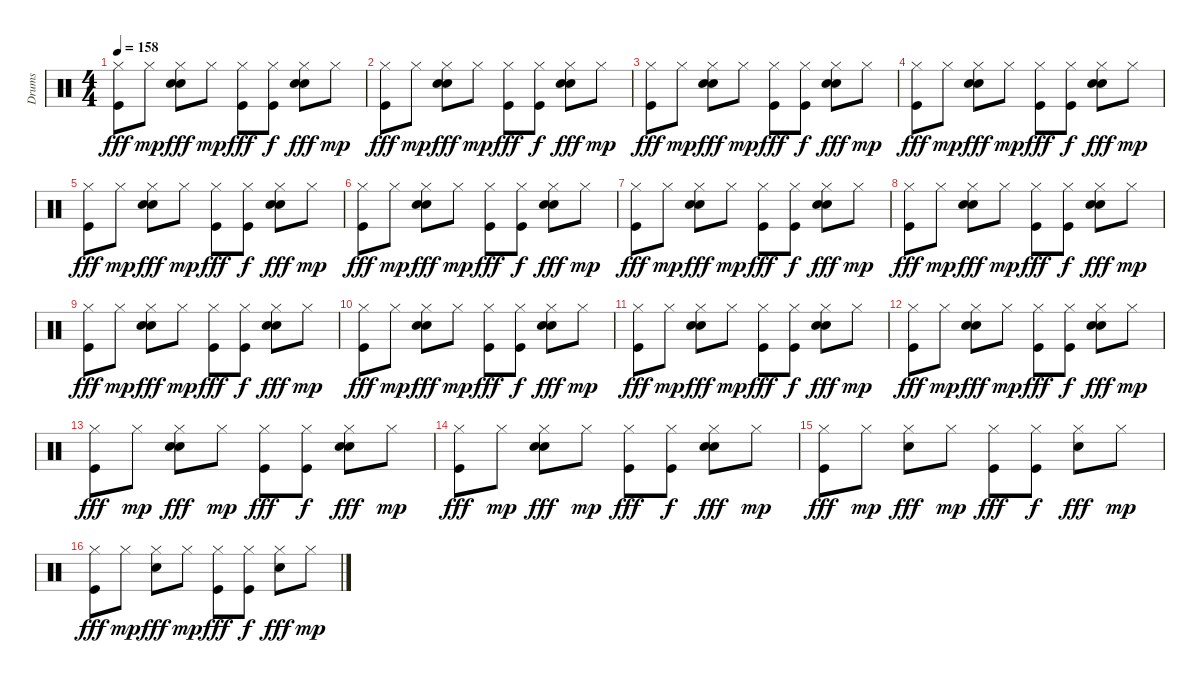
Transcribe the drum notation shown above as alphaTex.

\track ("Drums" "Drums") {instrument percussion}
\staff {score}
\articulation defaults
\ts (4 4)
\tempo 158
\clef neutral
\ks c
("Hi-Hat (closed)" "Kick (hit)").8{dy fff} "Hi-Hat (closed)".8{dy mp} ("Snare (hit) 2" "Hi-Hat (closed)" "Electric Snare (hit)").8{dy fff} "Hi-Hat (closed)".8{dy mp} ("Hi-Hat (closed)" "Kick (hit)").8{dy fff} ("Hi-Hat (closed)" "Kick (hit)").8{dy f} ("Snare (hit) 2" "Hi-Hat (closed)" "Electric Snare (hit)").8{dy fff} "Hi-Hat (closed)".8{dy mp} |
("Hi-Hat (closed)" "Kick (hit)").8{dy fff} "Hi-Hat (closed)".8{dy mp} ("Snare (hit) 2" "Hi-Hat (closed)" "Electric Snare (hit)").8{dy fff} "Hi-Hat (closed)".8{dy mp} ("Hi-Hat (closed)" "Kick (hit)").8{dy fff} ("Hi-Hat (closed)" "Kick (hit)").8{dy f} ("Snare (hit) 2" "Hi-Hat (closed)" "Electric Snare (hit)").8{dy fff} "Hi-Hat (closed)".8{dy mp} |
("Hi-Hat (closed)" "Kick (hit)").8{dy fff} "Hi-Hat (closed)".8{dy mp} ("Snare (hit) 2" "Hi-Hat (closed)" "Electric Snare (hit)").8{dy fff} "Hi-Hat (closed)".8{dy mp} ("Hi-Hat (closed)" "Kick (hit)").8{dy fff} ("Hi-Hat (closed)" "Kick (hit)").8{dy f} ("Snare (hit) 2" "Hi-Hat (closed)" "Electric Snare (hit)").8{dy fff} "Hi-Hat (closed)".8{dy mp} |
("Hi-Hat (closed)" "Kick (hit)").8{dy fff} "Hi-Hat (closed)".8{dy mp} ("Snare (hit) 2" "Hi-Hat (closed)" "Electric Snare (hit)").8{dy fff} "Hi-Hat (closed)".8{dy mp} ("Hi-Hat (closed)" "Kick (hit)").8{dy fff} ("Hi-Hat (closed)" "Kick (hit)").8{dy f} ("Snare (hit) 2" "Hi-Hat (closed)" "Electric Snare (hit)").8{dy fff} "Hi-Hat (closed)".8{dy mp} |
("Hi-Hat (closed)" "Kick (hit)").8{dy fff} "Hi-Hat (closed)".8{dy mp} ("Snare (hit) 2" "Hi-Hat (closed)" "Electric Snare (hit)").8{dy fff} "Hi-Hat (closed)".8{dy mp} ("Hi-Hat (closed)" "Kick (hit)").8{dy fff} ("Hi-Hat (closed)" "Kick (hit)").8{dy f} ("Snare (hit) 2" "Hi-Hat (closed)" "Electric Snare (hit)").8{dy fff} "Hi-Hat (closed)".8{dy mp} |
("Hi-Hat (closed)" "Kick (hit)").8{dy fff} "Hi-Hat (closed)".8{dy mp} ("Snare (hit) 2" "Hi-Hat (closed)" "Electric Snare (hit)").8{dy fff} "Hi-Hat (closed)".8{dy mp} ("Hi-Hat (closed)" "Kick (hit)").8{dy fff} ("Hi-Hat (closed)" "Kick (hit)").8{dy f} ("Snare (hit) 2" "Hi-Hat (closed)" "Electric Snare (hit)").8{dy fff} "Hi-Hat (closed)".8{dy mp} |
("Hi-Hat (closed)" "Kick (hit)").8{dy fff} "Hi-Hat (closed)".8{dy mp} ("Snare (hit) 2" "Hi-Hat (closed)" "Electric Snare (hit)").8{dy fff} "Hi-Hat (closed)".8{dy mp} ("Hi-Hat (closed)" "Kick (hit)").8{dy fff} ("Hi-Hat (closed)" "Kick (hit)").8{dy f} ("Snare (hit) 2" "Hi-Hat (closed)" "Electric Snare (hit)").8{dy fff} "Hi-Hat (closed)".8{dy mp} |
("Hi-Hat (closed)" "Kick (hit)").8{dy fff} "Hi-Hat (closed)".8{dy mp} ("Snare (hit) 2" "Hi-Hat (closed)" "Electric Snare (hit)").8{dy fff} "Hi-Hat (closed)".8{dy mp} ("Hi-Hat (closed)" "Kick (hit)").8{dy fff} ("Hi-Hat (closed)" "Kick (hit)").8{dy f} ("Snare (hit) 2" "Hi-Hat (closed)" "Electric Snare (hit)").8{dy fff} "Hi-Hat (closed)".8{dy mp} |
("Hi-Hat (closed)" "Kick (hit)").8{dy fff} "Hi-Hat (closed)".8{dy mp} ("Snare (hit) 2" "Hi-Hat (closed)" "Electric Snare (hit)").8{dy fff} "Hi-Hat (closed)".8{dy mp} ("Hi-Hat (closed)" "Kick (hit)").8{dy fff} ("Hi-Hat (closed)" "Kick (hit)").8{dy f} ("Snare (hit) 2" "Hi-Hat (closed)" "Electric Snare (hit)").8{dy fff} "Hi-Hat (closed)".8{dy mp} |
("Hi-Hat (closed)" "Kick (hit)").8{dy fff} "Hi-Hat (closed)".8{dy mp} ("Snare (hit) 2" "Hi-Hat (closed)" "Electric Snare (hit)").8{dy fff} "Hi-Hat (closed)".8{dy mp} ("Hi-Hat (closed)" "Kick (hit)").8{dy fff} ("Hi-Hat (closed)" "Kick (hit)").8{dy f} ("Snare (hit) 2" "Hi-Hat (closed)" "Electric Snare (hit)").8{dy fff} "Hi-Hat (closed)".8{dy mp} |
("Hi-Hat (closed)" "Kick (hit)").8{dy fff} "Hi-Hat (closed)".8{dy mp} ("Snare (hit) 2" "Hi-Hat (closed)" "Electric Snare (hit)").8{dy fff} "Hi-Hat (closed)".8{dy mp} ("Hi-Hat (closed)" "Kick (hit)").8{dy fff} ("Hi-Hat (closed)" "Kick (hit)").8{dy f} ("Snare (hit) 2" "Hi-Hat (closed)" "Electric Snare (hit)").8{dy fff} "Hi-Hat (closed)".8{dy mp} |
("Hi-Hat (closed)" "Kick (hit)").8{dy fff} "Hi-Hat (closed)".8{dy mp} ("Snare (hit) 2" "Hi-Hat (closed)" "Electric Snare (hit)").8{dy fff} "Hi-Hat (closed)".8{dy mp} ("Hi-Hat (closed)" "Kick (hit)").8{dy fff} ("Hi-Hat (closed)" "Kick (hit)").8{dy f} ("Snare (hit) 2" "Hi-Hat (closed)" "Electric Snare (hit)").8{dy fff} "Hi-Hat (closed)".8{dy mp} |
("Hi-Hat (closed)" "Kick (hit)").8{dy fff} "Hi-Hat (closed)".8{dy mp} ("Snare (hit) 2" "Hi-Hat (closed)" "Electric Snare (hit)").8{dy fff} "Hi-Hat (closed)".8{dy mp} ("Hi-Hat (closed)" "Kick (hit)").8{dy fff} ("Hi-Hat (closed)" "Kick (hit)").8{dy f} ("Snare (hit) 2" "Hi-Hat (closed)" "Electric Snare (hit)").8{dy fff} "Hi-Hat (closed)".8{dy mp} |
("Hi-Hat (closed)" "Kick (hit)").8{dy fff} "Hi-Hat (closed)".8{dy mp} ("Snare (hit) 2" "Hi-Hat (closed)" "Electric Snare (hit)").8{dy fff} "Hi-Hat (closed)".8{dy mp} ("Hi-Hat (closed)" "Kick (hit)").8{dy fff} ("Hi-Hat (closed)" "Kick (hit)").8{dy f} ("Snare (hit) 2" "Hi-Hat (closed)" "Electric Snare (hit)").8{dy fff} "Hi-Hat (closed)".8{dy mp} |
("Hi-Hat (closed)" "Kick (hit)").8{dy fff} "Hi-Hat (closed)".8{dy mp} ("Snare (hit) 2" "Hi-Hat (closed)").8{dy fff} "Hi-Hat (closed)".8{dy mp} ("Hi-Hat (closed)" "Kick (hit)").8{dy fff} ("Hi-Hat (closed)" "Kick (hit)").8{dy f} ("Snare (hit) 2" "Hi-Hat (closed)").8{dy fff} "Hi-Hat (closed)".8{dy mp} |
("Hi-Hat (closed)" "Kick (hit)").8{dy fff} "Hi-Hat (closed)".8{dy mp} ("Snare (hit) 2" "Hi-Hat (closed)").8{dy fff} "Hi-Hat (closed)".8{dy mp} ("Hi-Hat (closed)" "Kick (hit)").8{dy fff} ("Hi-Hat (closed)" "Kick (hit)").8{dy f} ("Snare (hit) 2" "Hi-Hat (closed)").8{dy fff} "Hi-Hat (closed)".8{dy mp}
